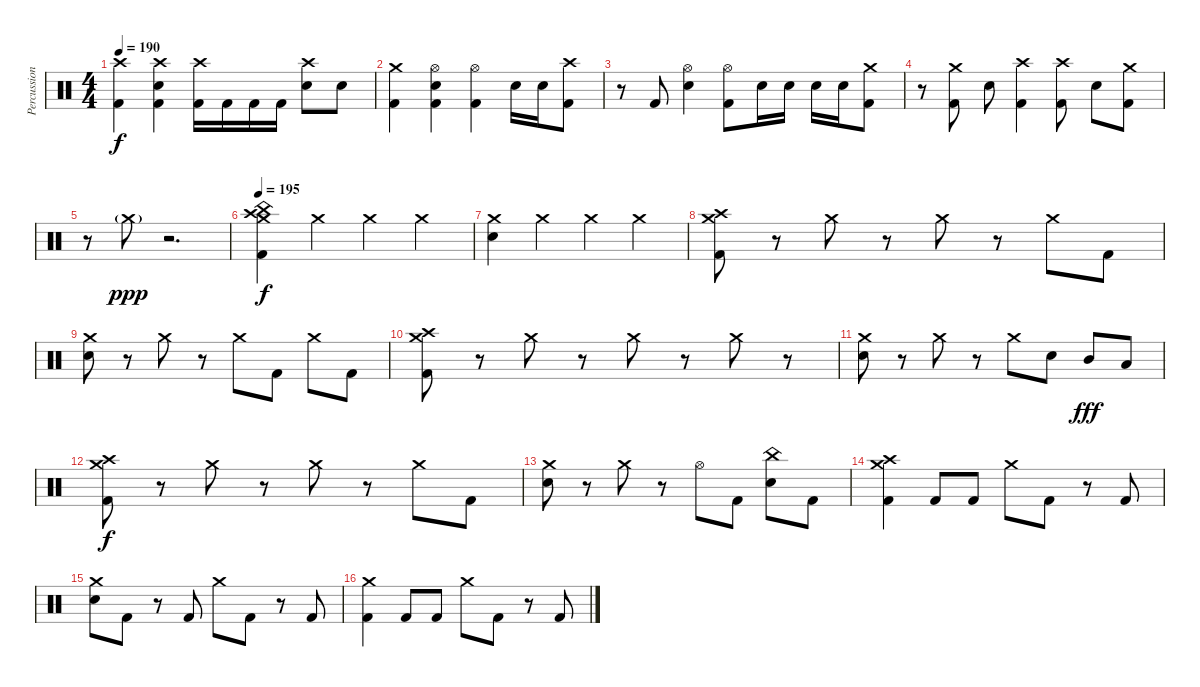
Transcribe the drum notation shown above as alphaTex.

\track ("Percussion" "Percussion") {instrument percussion}
\staff {score}
\articulation defaults
\ts (4 4)
\tempo 190
\clef neutral
\ks c
("Crash high (hit)" "Kick (hit) 2").4{dy f} ("Crash high (hit)" "Electric Snare (hit)" "Kick (hit) 2").4 ("Crash high (hit)" "Kick (hit) 2").16 "Kick (hit) 2".16 "Kick (hit) 2".16 "Kick (hit) 2".16 ("Crash high (hit)" "Electric Snare (hit)").8 "Electric Snare (hit)".8 |
("Crash medium (hit)" "Kick (hit) 2").4 ("Hi-Hat (open)" "Electric Snare (hit)" "Kick (hit) 2").4 ("Hi-Hat (open)" "Kick (hit) 2").4 "Electric Snare (hit)".16 "Electric Snare (hit)".16 ("Crash high (hit)" "Kick (hit) 2").8 |
r.8 "Kick (hit) 2".8 ("Hi-Hat (open)" "Electric Snare (hit)").4 ("Hi-Hat (open)" "Kick (hit) 2").8 "Electric Snare (hit)".16 "Electric Snare (hit)".16 "Electric Snare (hit)".16 "Electric Snare (hit)".16 ("Crash medium (hit)" "Kick (hit) 2").8 |
r.8 ("Crash medium (hit)" "Kick (hit) 2").8 "Electric Snare (hit)".8 ("Crash high (hit)" "Kick (hit) 2").4 ("Crash high (hit)" "Kick (hit) 2").8 "Electric Snare (hit)".8 ("Crash medium (hit)" "Kick (hit) 2").8 |
r.8 "Crash medium (hit)"{g}.8{dy ppp} r.2{d} |
\tempo 195
("Crash medium (hit)" "Crash high (hit)" "China (hit)" "Kick (hit) 2").4{dy f} "Crash medium (hit)".4 "Crash medium (hit)".4 "Crash medium (hit)".4 |
("Crash medium (hit)" "Electric Snare (hit)").4 "Crash medium (hit)".4 "Crash medium (hit)".4 "Crash medium (hit)".4 |
("Crash medium (hit)" "Crash high (hit)" "Kick (hit) 2").8 r.8 "Crash medium (hit)".8 r.8 "Crash medium (hit)".8 r.8 "Crash medium (hit)".8 "Kick (hit) 2".8 |
("Crash medium (hit)" "Electric Snare (hit)").8 r.8 "Crash medium (hit)".8 r.8 "Crash medium (hit)".8 "Kick (hit) 2".8 "Crash medium (hit)".8 "Kick (hit) 2".8 |
("Crash medium (hit)" "Crash high (hit)" "Kick (hit) 2").8 r.8 "Crash medium (hit)".8 r.8 "Crash medium (hit)".8 r.8 "Crash medium (hit)".8 r.8 |
("Crash medium (hit)" "Electric Snare (hit)").8 r.8 "Crash medium (hit)".8 r.8 "Crash medium (hit)".8 "Electric Snare (hit)".8 "Mid Tom (hit)".8{dy fff} "Low Tom (hit)".8 |
("Crash medium (hit)" "Crash high (hit)" "Kick (hit) 2").8{dy f} r.8 "Crash medium (hit)".8 r.8 "Crash medium (hit)".8 r.8 "Crash medium (hit)".8 "Kick (hit) 2".8 |
("Crash medium (hit)" "Electric Snare (hit)").8 r.8 "Crash medium (hit)".8 r.8 "Hi-Hat (open)".8 "Kick (hit) 2".8 ("China (hit)" "Electric Snare (hit)").8 "Kick (hit) 2".8 |
("Crash medium (hit)" "Crash high (hit)" "Kick (hit) 2").4 "Kick (hit) 2".8 "Kick (hit) 2".8 "Crash medium (hit)".8 "Kick (hit) 2".8 r.8 "Kick (hit) 2".8 |
("Crash medium (hit)" "Electric Snare (hit)").8 "Kick (hit) 2".8 r.8 "Kick (hit) 2".8 "Crash medium (hit)".8 "Kick (hit) 2".8 r.8 "Kick (hit) 2".8 |
("Crash medium (hit)" "Kick (hit) 2").4 "Kick (hit) 2".8 "Kick (hit) 2".8 "Crash medium (hit)".8 "Kick (hit) 2".8 r.8 "Kick (hit) 2".8
